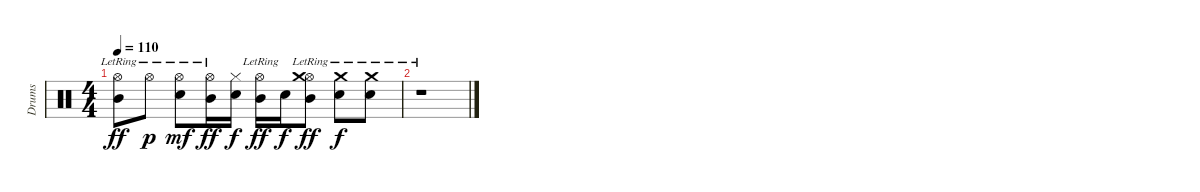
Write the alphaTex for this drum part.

\track ("Drums" "Drums") {instrument percussion}
\staff {score}
\articulation defaults
\ts (4 4)
\tempo 110
\clef neutral
\ks c
("Hi-Hat (open)"{lr} "Mid Tom (hit)").8{dy ff} "Hi-Hat (open)"{lr}.8{dy p} ("Hi-Hat (open)"{lr} "Electric Snare (hit)").8{dy mf} ("Hi-Hat (open)"{lr} "Mid Tom (hit)").16{dy ff} ("Hi-Hat (closed)" "Electric Snare (hit)").16{dy f} ("Hi-Hat (open)"{lr} "Mid Tom (hit)").16{dy ff} "Electric Snare (hit)".16{dy f} ("Hi-Hat (open)"{lr} "Crash medium (hit)"{lr} "Mid Tom (hit)").8{dy ff} ("Crash medium (hit)"{lr} "Electric Snare (hit)").8{dy f} ("Crash medium (hit)"{lr} "Electric Snare (hit)").8 |
r.1
